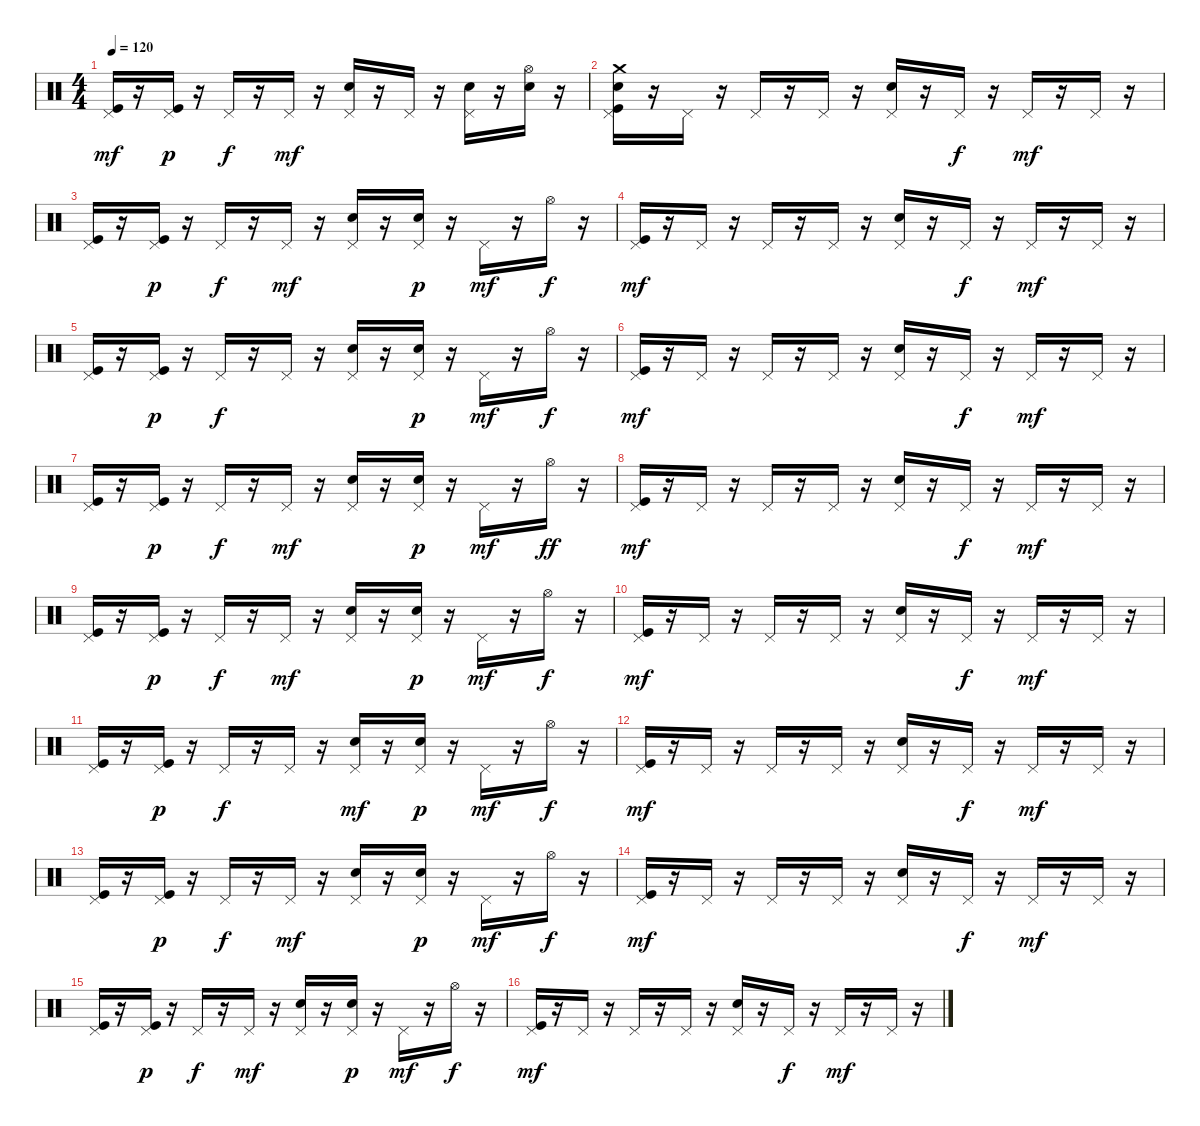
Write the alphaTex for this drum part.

\track "" {instrument percussion}
\staff {score}
\articulation defaults
\ts (4 4)
\tempo 120
\clef neutral
\ks c
("Kick (hit)" "Pedal Hi-Hat (hit)").16{dy mf} r.16 ("Kick (hit)" "Pedal Hi-Hat (hit)").16{dy p} r.16 "Pedal Hi-Hat (hit)".16{dy f} r.16 "Pedal Hi-Hat (hit)".16{dy mf} r.16 ("Snare (hit) 2" "Pedal Hi-Hat (hit)").16 r.16 "Pedal Hi-Hat (hit)".16 r.16 ("Snare (hit) 2" "Pedal Hi-Hat (hit)").16 r.16 ("Hi-Hat (open)" "Snare (hit) 2").16 r.16 |
("Crash medium (hit)" "Snare (hit) 2" "Kick (hit)" "Pedal Hi-Hat (hit)").16 r.16 "Pedal Hi-Hat (hit)".16 r.16 "Pedal Hi-Hat (hit)".16 r.16 "Pedal Hi-Hat (hit)".16 r.16 ("Snare (hit) 2" "Pedal Hi-Hat (hit)").16 r.16 "Pedal Hi-Hat (hit)".16{dy f} r.16 "Pedal Hi-Hat (hit)".16{dy mf} r.16 "Pedal Hi-Hat (hit)".16 r.16 |
("Kick (hit)" "Pedal Hi-Hat (hit)").16 r.16 ("Kick (hit)" "Pedal Hi-Hat (hit)").16{dy p} r.16 "Pedal Hi-Hat (hit)".16{dy f} r.16 "Pedal Hi-Hat (hit)".16{dy mf} r.16 ("Snare (hit) 2" "Pedal Hi-Hat (hit)").16 r.16 ("Snare (hit) 2" "Pedal Hi-Hat (hit)").16{dy p} r.16 "Pedal Hi-Hat (hit)".16{dy mf} r.16 "Hi-Hat (open)".16{dy f} r.16 |
("Kick (hit)" "Pedal Hi-Hat (hit)").16{dy mf} r.16 "Pedal Hi-Hat (hit)".16 r.16 "Pedal Hi-Hat (hit)".16 r.16 "Pedal Hi-Hat (hit)".16 r.16 ("Snare (hit) 2" "Pedal Hi-Hat (hit)").16 r.16 "Pedal Hi-Hat (hit)".16{dy f} r.16 "Pedal Hi-Hat (hit)".16{dy mf} r.16 "Pedal Hi-Hat (hit)".16 r.16 |
("Kick (hit)" "Pedal Hi-Hat (hit)").16 r.16 ("Kick (hit)" "Pedal Hi-Hat (hit)").16{dy p} r.16 "Pedal Hi-Hat (hit)".16{dy f} r.16 "Pedal Hi-Hat (hit)".16 r.16 ("Snare (hit) 2" "Pedal Hi-Hat (hit)").16 r.16 ("Snare (hit) 2" "Pedal Hi-Hat (hit)").16{dy p} r.16 "Pedal Hi-Hat (hit)".16{dy mf} r.16 "Hi-Hat (open)".16{dy f} r.16 |
("Kick (hit)" "Pedal Hi-Hat (hit)").16{dy mf} r.16 "Pedal Hi-Hat (hit)".16 r.16 "Pedal Hi-Hat (hit)".16 r.16 "Pedal Hi-Hat (hit)".16 r.16 ("Snare (hit) 2" "Pedal Hi-Hat (hit)").16 r.16 "Pedal Hi-Hat (hit)".16{dy f} r.16 "Pedal Hi-Hat (hit)".16{dy mf} r.16 "Pedal Hi-Hat (hit)".16 r.16 |
("Kick (hit)" "Pedal Hi-Hat (hit)").16 r.16 ("Kick (hit)" "Pedal Hi-Hat (hit)").16{dy p} r.16 "Pedal Hi-Hat (hit)".16{dy f} r.16 "Pedal Hi-Hat (hit)".16{dy mf} r.16 ("Snare (hit) 2" "Pedal Hi-Hat (hit)").16 r.16 ("Snare (hit) 2" "Pedal Hi-Hat (hit)").16{dy p} r.16 "Pedal Hi-Hat (hit)".16{dy mf} r.16 "Hi-Hat (open)".16{dy ff} r.16 |
("Kick (hit)" "Pedal Hi-Hat (hit)").16{dy mf} r.16 "Pedal Hi-Hat (hit)".16 r.16 "Pedal Hi-Hat (hit)".16 r.16 "Pedal Hi-Hat (hit)".16 r.16 ("Snare (hit) 2" "Pedal Hi-Hat (hit)").16 r.16 "Pedal Hi-Hat (hit)".16{dy f} r.16 "Pedal Hi-Hat (hit)".16{dy mf} r.16 "Pedal Hi-Hat (hit)".16 r.16 |
("Kick (hit)" "Pedal Hi-Hat (hit)").16 r.16 ("Kick (hit)" "Pedal Hi-Hat (hit)").16{dy p} r.16 "Pedal Hi-Hat (hit)".16{dy f} r.16 "Pedal Hi-Hat (hit)".16{dy mf} r.16 ("Snare (hit) 2" "Pedal Hi-Hat (hit)").16 r.16 ("Snare (hit) 2" "Pedal Hi-Hat (hit)").16{dy p} r.16 "Pedal Hi-Hat (hit)".16{dy mf} r.16 "Hi-Hat (open)".16{dy f} r.16 |
("Kick (hit)" "Pedal Hi-Hat (hit)").16{dy mf} r.16 "Pedal Hi-Hat (hit)".16 r.16 "Pedal Hi-Hat (hit)".16 r.16 "Pedal Hi-Hat (hit)".16 r.16 ("Snare (hit) 2" "Pedal Hi-Hat (hit)").16 r.16 "Pedal Hi-Hat (hit)".16{dy f} r.16 "Pedal Hi-Hat (hit)".16{dy mf} r.16 "Pedal Hi-Hat (hit)".16 r.16 |
("Kick (hit)" "Pedal Hi-Hat (hit)").16 r.16 ("Kick (hit)" "Pedal Hi-Hat (hit)").16{dy p} r.16 "Pedal Hi-Hat (hit)".16{dy f} r.16 "Pedal Hi-Hat (hit)".16 r.16 ("Snare (hit) 2" "Pedal Hi-Hat (hit)").16{dy mf} r.16 ("Snare (hit) 2" "Pedal Hi-Hat (hit)").16{dy p} r.16 "Pedal Hi-Hat (hit)".16{dy mf} r.16 "Hi-Hat (open)".16{dy f} r.16 |
("Kick (hit)" "Pedal Hi-Hat (hit)").16{dy mf} r.16 "Pedal Hi-Hat (hit)".16 r.16 "Pedal Hi-Hat (hit)".16 r.16 "Pedal Hi-Hat (hit)".16 r.16 ("Snare (hit) 2" "Pedal Hi-Hat (hit)").16 r.16 "Pedal Hi-Hat (hit)".16{dy f} r.16 "Pedal Hi-Hat (hit)".16{dy mf} r.16 "Pedal Hi-Hat (hit)".16 r.16 |
("Kick (hit)" "Pedal Hi-Hat (hit)").16 r.16 ("Kick (hit)" "Pedal Hi-Hat (hit)").16{dy p} r.16 "Pedal Hi-Hat (hit)".16{dy f} r.16 "Pedal Hi-Hat (hit)".16{dy mf} r.16 ("Snare (hit) 2" "Pedal Hi-Hat (hit)").16 r.16 ("Snare (hit) 2" "Pedal Hi-Hat (hit)").16{dy p} r.16 "Pedal Hi-Hat (hit)".16{dy mf} r.16 "Hi-Hat (open)".16{dy f} r.16 |
("Kick (hit)" "Pedal Hi-Hat (hit)").16{dy mf} r.16 "Pedal Hi-Hat (hit)".16 r.16 "Pedal Hi-Hat (hit)".16 r.16 "Pedal Hi-Hat (hit)".16 r.16 ("Snare (hit) 2" "Pedal Hi-Hat (hit)").16 r.16 "Pedal Hi-Hat (hit)".16{dy f} r.16 "Pedal Hi-Hat (hit)".16{dy mf} r.16 "Pedal Hi-Hat (hit)".16 r.16 |
("Kick (hit)" "Pedal Hi-Hat (hit)").16 r.16 ("Kick (hit)" "Pedal Hi-Hat (hit)").16{dy p} r.16 "Pedal Hi-Hat (hit)".16{dy f} r.16 "Pedal Hi-Hat (hit)".16{dy mf} r.16 ("Snare (hit) 2" "Pedal Hi-Hat (hit)").16 r.16 ("Snare (hit) 2" "Pedal Hi-Hat (hit)").16{dy p} r.16 "Pedal Hi-Hat (hit)".16{dy mf} r.16 "Hi-Hat (open)".16{dy f} r.16 |
("Kick (hit)" "Pedal Hi-Hat (hit)").16{dy mf} r.16 "Pedal Hi-Hat (hit)".16 r.16 "Pedal Hi-Hat (hit)".16 r.16 "Pedal Hi-Hat (hit)".16 r.16 ("Snare (hit) 2" "Pedal Hi-Hat (hit)").16 r.16 "Pedal Hi-Hat (hit)".16{dy f} r.16 "Pedal Hi-Hat (hit)".16{dy mf} r.16 "Pedal Hi-Hat (hit)".16 r.16
